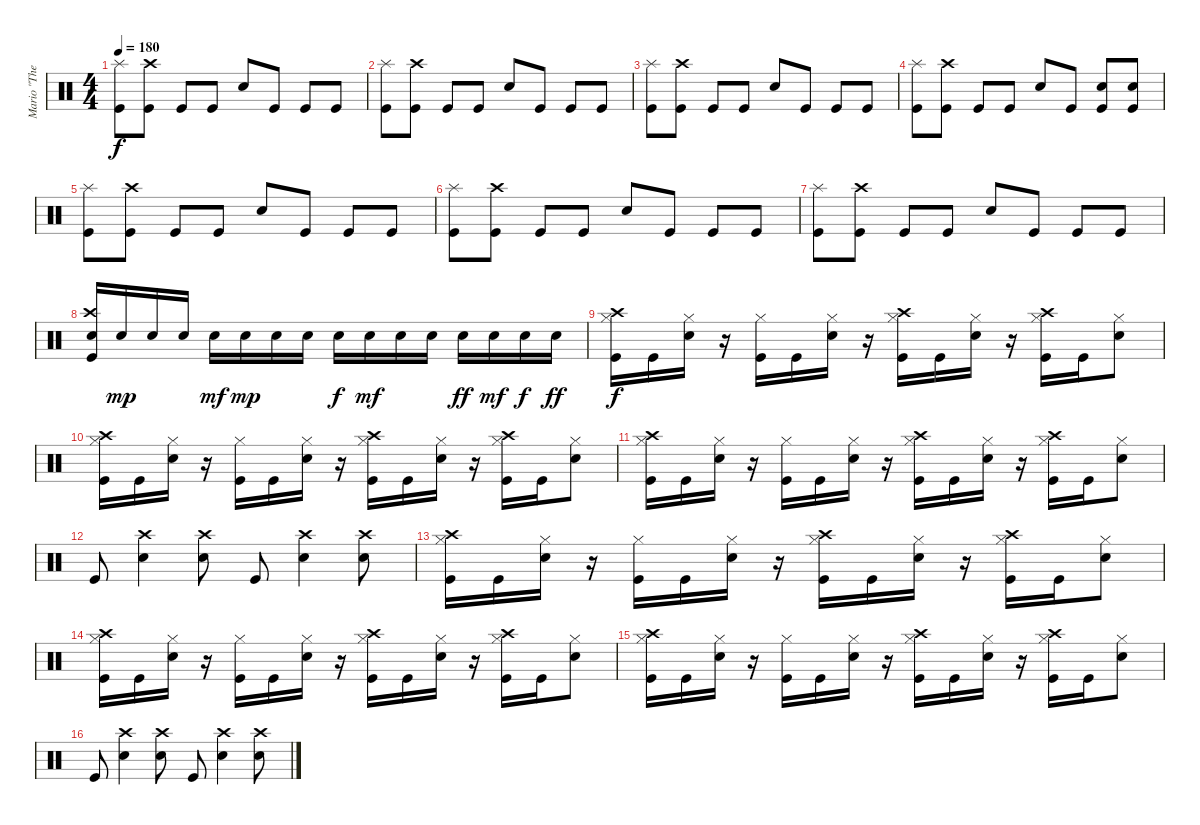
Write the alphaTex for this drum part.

\track ("Mario \"The dremmel\" Hirt" "Mario \"The") {instrument percussion}
\staff {score}
\articulation defaults
\ts (4 4)
\tempo 180
\clef neutral
\ks c
("Splash (hit)" "Kick (hit)").8{dy f} ("Crash high (hit)" "Kick (hit)").8 "Kick (hit)".8 "Kick (hit)".8 "Electric Snare (hit)".8 "Kick (hit)".8 "Kick (hit)".8 "Kick (hit)".8 |
("Splash (hit)" "Kick (hit)").8 ("Crash high (hit)" "Kick (hit)").8 "Kick (hit)".8 "Kick (hit)".8 "Electric Snare (hit)".8 "Kick (hit)".8 "Kick (hit)".8 "Kick (hit)".8 |
("Splash (hit)" "Kick (hit)").8 ("Crash high (hit)" "Kick (hit)").8 "Kick (hit)".8 "Kick (hit)".8 "Electric Snare (hit)".8 "Kick (hit)".8 "Kick (hit)".8 "Kick (hit)".8 |
("Splash (hit)" "Kick (hit)").8 ("Crash high (hit)" "Kick (hit)").8 "Kick (hit)".8 "Kick (hit)".8 "Electric Snare (hit)".8 "Kick (hit)".8 ("Electric Snare (hit)" "Kick (hit)").8 ("Electric Snare (hit)" "Kick (hit)").8 |
("Splash (hit)" "Kick (hit)").8 ("Crash high (hit)" "Kick (hit)").8 "Kick (hit)".8 "Kick (hit)".8 "Electric Snare (hit)".8 "Kick (hit)".8 "Kick (hit)".8 "Kick (hit)".8 |
("Splash (hit)" "Kick (hit)").8 ("Crash high (hit)" "Kick (hit)").8 "Kick (hit)".8 "Kick (hit)".8 "Electric Snare (hit)".8 "Kick (hit)".8 "Kick (hit)".8 "Kick (hit)".8 |
("Splash (hit)" "Kick (hit)").8 ("Crash high (hit)" "Kick (hit)").8 "Kick (hit)".8 "Kick (hit)".8 "Electric Snare (hit)".8 "Kick (hit)".8 "Kick (hit)".8 "Kick (hit)".8 |
("Crash high (hit)" "Electric Snare (hit)" "Kick (hit)").16 "Electric Snare (hit)".16{dy mp} "Electric Snare (hit)".16 "Electric Snare (hit)".16 "Electric Snare (hit)".16{dy mf} "Electric Snare (hit)".16{dy mp} "Electric Snare (hit)".16 "Electric Snare (hit)".16 "Electric Snare (hit)".16{dy f} "Electric Snare (hit)".16{dy mf} "Electric Snare (hit)".16 "Electric Snare (hit)".16 "Electric Snare (hit)".16{dy ff} "Electric Snare (hit)".16{dy mf} "Electric Snare (hit)".16{dy f} "Electric Snare (hit)".16{dy ff} |
("Crash high (hit)" "Hi-Hat (closed)" "Kick (hit)").16{dy f} "Kick (hit)".16 ("Hi-Hat (closed)" "Electric Snare (hit)").16 r.16 ("Hi-Hat (closed)" "Kick (hit)").16 "Kick (hit)".16 ("Hi-Hat (closed)" "Electric Snare (hit)").16 r.16 ("Crash high (hit)" "Hi-Hat (closed)" "Kick (hit)").16 "Kick (hit)".16 ("Hi-Hat (closed)" "Electric Snare (hit)").16 r.16 ("Crash high (hit)" "Hi-Hat (closed)" "Kick (hit)").16 "Kick (hit)".16 ("Hi-Hat (closed)" "Electric Snare (hit)").8 |
("Crash high (hit)" "Hi-Hat (closed)" "Kick (hit)").16 "Kick (hit)".16 ("Hi-Hat (closed)" "Electric Snare (hit)").16 r.16 ("Hi-Hat (closed)" "Kick (hit)").16 "Kick (hit)".16 ("Hi-Hat (closed)" "Electric Snare (hit)").16 r.16 ("Crash high (hit)" "Hi-Hat (closed)" "Kick (hit)").16 "Kick (hit)".16 ("Hi-Hat (closed)" "Electric Snare (hit)").16 r.16 ("Crash high (hit)" "Hi-Hat (closed)" "Kick (hit)").16 "Kick (hit)".16 ("Hi-Hat (closed)" "Electric Snare (hit)").8 |
("Crash high (hit)" "Hi-Hat (closed)" "Kick (hit)").16 "Kick (hit)".16 ("Hi-Hat (closed)" "Electric Snare (hit)").16 r.16 ("Hi-Hat (closed)" "Kick (hit)").16 "Kick (hit)".16 ("Hi-Hat (closed)" "Electric Snare (hit)").16 r.16 ("Crash high (hit)" "Hi-Hat (closed)" "Kick (hit)").16 "Kick (hit)".16 ("Hi-Hat (closed)" "Electric Snare (hit)").16 r.16 ("Crash high (hit)" "Hi-Hat (closed)" "Kick (hit)").16 "Kick (hit)".16 ("Hi-Hat (closed)" "Electric Snare (hit)").8 |
"Kick (hit)".8 ("Electric Snare (hit)" "Crash high (hit)").4 ("Electric Snare (hit)" "Crash high (hit)").8 "Kick (hit)".8 ("Electric Snare (hit)" "Crash high (hit)").4 ("Electric Snare (hit)" "Crash high (hit)").8 |
("Crash high (hit)" "Hi-Hat (closed)" "Kick (hit)").16 "Kick (hit)".16 ("Hi-Hat (closed)" "Electric Snare (hit)").16 r.16 ("Hi-Hat (closed)" "Kick (hit)").16 "Kick (hit)".16 ("Hi-Hat (closed)" "Electric Snare (hit)").16 r.16 ("Crash high (hit)" "Hi-Hat (closed)" "Kick (hit)").16 "Kick (hit)".16 ("Hi-Hat (closed)" "Electric Snare (hit)").16 r.16 ("Crash high (hit)" "Hi-Hat (closed)" "Kick (hit)").16 "Kick (hit)".16 ("Hi-Hat (closed)" "Electric Snare (hit)").8 |
("Crash high (hit)" "Hi-Hat (closed)" "Kick (hit)").16 "Kick (hit)".16 ("Hi-Hat (closed)" "Electric Snare (hit)").16 r.16 ("Hi-Hat (closed)" "Kick (hit)").16 "Kick (hit)".16 ("Hi-Hat (closed)" "Electric Snare (hit)").16 r.16 ("Crash high (hit)" "Hi-Hat (closed)" "Kick (hit)").16 "Kick (hit)".16 ("Hi-Hat (closed)" "Electric Snare (hit)").16 r.16 ("Crash high (hit)" "Hi-Hat (closed)" "Kick (hit)").16 "Kick (hit)".16 ("Hi-Hat (closed)" "Electric Snare (hit)").8 |
("Crash high (hit)" "Hi-Hat (closed)" "Kick (hit)").16 "Kick (hit)".16 ("Hi-Hat (closed)" "Electric Snare (hit)").16 r.16 ("Hi-Hat (closed)" "Kick (hit)").16 "Kick (hit)".16 ("Hi-Hat (closed)" "Electric Snare (hit)").16 r.16 ("Crash high (hit)" "Hi-Hat (closed)" "Kick (hit)").16 "Kick (hit)".16 ("Hi-Hat (closed)" "Electric Snare (hit)").16 r.16 ("Crash high (hit)" "Hi-Hat (closed)" "Kick (hit)").16 "Kick (hit)".16 ("Hi-Hat (closed)" "Electric Snare (hit)").8 |
"Kick (hit)".8 ("Electric Snare (hit)" "Crash high (hit)").4 ("Electric Snare (hit)" "Crash high (hit)").8 "Kick (hit)".8 ("Electric Snare (hit)" "Crash high (hit)").4 ("Electric Snare (hit)" "Crash high (hit)").8
